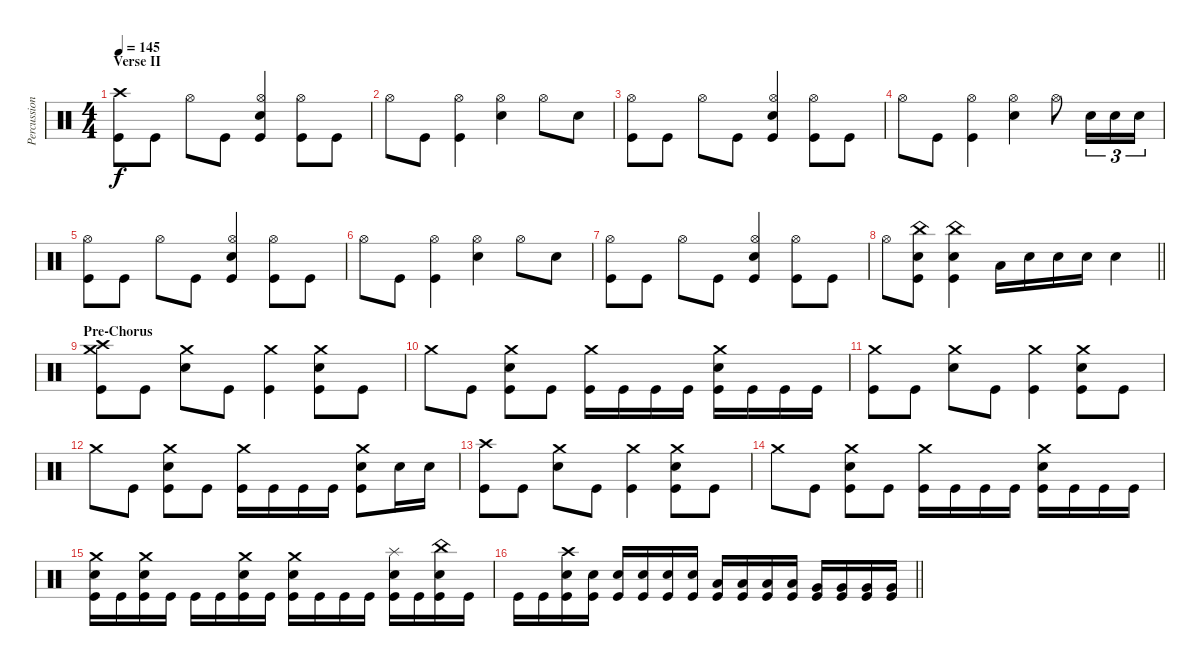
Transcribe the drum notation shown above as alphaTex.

\track ("Percussion" "Percussion") {instrument percussion}
\staff {score}
\articulation defaults
\ts (4 4)
\section ("" "Verse II")
\tempo 145
\clef neutral
\ks c
("Crash high (hit)" "Kick (hit)").8{dy f} "Kick (hit)".8 "Hi-Hat (open)".8 "Kick (hit)".8 ("Hi-Hat (open)" "Electric Snare (hit)" "Kick (hit)").4 ("Hi-Hat (open)" "Kick (hit)").8 "Kick (hit)".8 |
"Hi-Hat (open)".8 "Kick (hit)".8 ("Hi-Hat (open)" "Kick (hit)").4 ("Hi-Hat (open)" "Electric Snare (hit)").4 "Hi-Hat (open)".8 "Electric Snare (hit)".8 |
("Hi-Hat (open)" "Kick (hit)").8 "Kick (hit)".8 "Hi-Hat (open)".8 "Kick (hit)".8 ("Hi-Hat (open)" "Electric Snare (hit)" "Kick (hit)").4 ("Hi-Hat (open)" "Kick (hit)").8 "Kick (hit)".8 |
"Hi-Hat (open)".8 "Kick (hit)".8 ("Hi-Hat (open)" "Kick (hit)").4 ("Hi-Hat (open)" "Electric Snare (hit)").4 "Hi-Hat (open)".8 "Electric Snare (hit)".16{tu (3 2)} "Electric Snare (hit)".16{tu (3 2)} "Electric Snare (hit)".16{tu (3 2)} |
("Hi-Hat (open)" "Kick (hit)").8 "Kick (hit)".8 "Hi-Hat (open)".8 "Kick (hit)".8 ("Hi-Hat (open)" "Electric Snare (hit)" "Kick (hit)").4 ("Hi-Hat (open)" "Kick (hit)").8 "Kick (hit)".8 |
"Hi-Hat (open)".8 "Kick (hit)".8 ("Hi-Hat (open)" "Kick (hit)").4 ("Hi-Hat (open)" "Electric Snare (hit)").4 "Hi-Hat (open)".8 "Electric Snare (hit)".8 |
("Hi-Hat (open)" "Kick (hit)").8 "Kick (hit)".8 "Hi-Hat (open)".8 "Kick (hit)".8 ("Hi-Hat (open)" "Electric Snare (hit)" "Kick (hit)").4 ("Hi-Hat (open)" "Kick (hit)").8 "Kick (hit)".8 |
\barLineRight lightlight "Hi-Hat (open)".8
("China (hit)" "Electric Snare (hit)" "Kick (hit)").8 ("China (hit)" "Electric Snare (hit)" "Kick (hit)").4 "Low Floor Tom (hit)".16 "Electric Snare (hit)".16 "Electric Snare (hit)".16 "Electric Snare (hit)".16 "Electric Snare (hit)".4 |
\section ("" "Pre-Chorus")
("Crash high (hit)" "Crash medium (hit)" "Kick (hit)").8 "Kick (hit)".8 ("Crash medium (hit)" "Electric Snare (hit)").8 "Kick (hit)".8 ("Crash medium (hit)" "Kick (hit)").4 ("Crash medium (hit)" "Electric Snare (hit)" "Kick (hit)").8 "Kick (hit)".8 |
"Crash medium (hit)".8 "Kick (hit)".8 ("Crash medium (hit)" "Electric Snare (hit)" "Kick (hit)").8 "Kick (hit)".8 ("Crash medium (hit)" "Kick (hit)").16 "Kick (hit)".16 "Kick (hit)".16 "Kick (hit)".16 ("Crash medium (hit)" "Electric Snare (hit)" "Kick (hit)").16 "Kick (hit)".16 "Kick (hit)".16 "Kick (hit)".16 |
("Crash medium (hit)" "Kick (hit)").8 "Kick (hit)".8 ("Crash medium (hit)" "Electric Snare (hit)").8 "Kick (hit)".8 ("Crash medium (hit)" "Kick (hit)").4 ("Crash medium (hit)" "Electric Snare (hit)" "Kick (hit)").8 "Kick (hit)".8 |
"Crash medium (hit)".8 "Kick (hit)".8 ("Crash medium (hit)" "Electric Snare (hit)" "Kick (hit)").8 "Kick (hit)".8 ("Crash medium (hit)" "Kick (hit)").16 "Kick (hit)".16 "Kick (hit)".16 "Kick (hit)".16 ("Crash medium (hit)" "Electric Snare (hit)" "Kick (hit)").8 "Electric Snare (hit)".16 "Electric Snare (hit)".16 |
("Crash high (hit)" "Kick (hit)").8 "Kick (hit)".8 ("Crash medium (hit)" "Electric Snare (hit)").8 "Kick (hit)".8 ("Crash medium (hit)" "Kick (hit)").4 ("Crash medium (hit)" "Electric Snare (hit)" "Kick (hit)").8 "Kick (hit)".8 |
"Crash medium (hit)".8 "Kick (hit)".8 ("Crash medium (hit)" "Electric Snare (hit)" "Kick (hit)").8 "Kick (hit)".8 ("Crash medium (hit)" "Kick (hit)").16 "Kick (hit)".16 "Kick (hit)".16 "Kick (hit)".16 ("Crash medium (hit)" "Electric Snare (hit)" "Kick (hit)").16 "Kick (hit)".16 "Kick (hit)".16 "Kick (hit)".16 |
("Crash medium (hit)" "Electric Snare (hit)" "Kick (hit)").16 "Kick (hit)".16 ("Crash medium (hit)" "Electric Snare (hit)" "Kick (hit)").16 "Kick (hit)".16 "Kick (hit)".16 "Kick (hit)".16 ("Crash medium (hit)" "Electric Snare (hit)" "Kick (hit)").16 "Kick (hit)".16 ("Crash medium (hit)" "Electric Snare (hit)" "Kick (hit)").16 "Kick (hit)".16 "Kick (hit)".16 "Kick (hit)".16 ("Splash (hit)" "Electric Snare (hit)" "Kick (hit)").16 "Kick (hit)".16 ("China (hit)" "Electric Snare (hit)" "Kick (hit)").16 "Kick (hit)".16 |
\barLineRight lightlight "Kick (hit)".16 "Kick (hit)".16
("Crash high (hit)" "Electric Snare (hit)" "Kick (hit)").16 ("Electric Snare (hit)" "Kick (hit)").16 ("Electric Snare (hit)" "Kick (hit)").16 ("Electric Snare (hit)" "Kick (hit)").16 ("Electric Snare (hit)" "Kick (hit)").16 ("Electric Snare (hit)" "Kick (hit)").16 ("Low Tom (hit)" "Kick (hit)").16 ("Low Tom (hit)" "Kick (hit)").16 ("Low Tom (hit)" "Kick (hit)").16 ("Low Tom (hit)" "Kick (hit)").16 ("Very Low Tom (hit)" "Kick (hit)").16 ("Very Low Tom (hit)" "Kick (hit)").16 ("Very Low Tom (hit)" "Kick (hit)").16 ("Very Low Tom (hit)" "Kick (hit)").16
